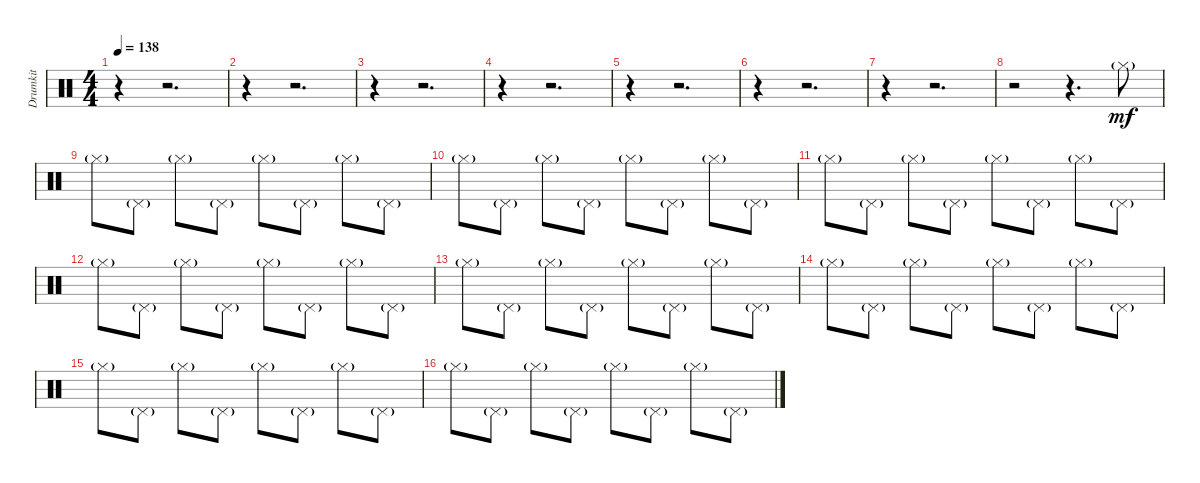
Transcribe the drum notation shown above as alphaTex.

\track ("Drumkit" "Drumkit") {instrument percussion}
\staff {score}
\articulation defaults
\ts (4 4)
\tempo 138
\clef neutral
\ks c
r.4{dy mf} r.2{d} |
r.4 r.2{d} |
r.4 r.2{d} |
r.4 r.2{d} |
r.4 r.2{d} |
r.4 r.2{d} |
r.4 r.2{d} |
r.2 r.4{d} "Hi-Hat (closed)"{g}.8 |
"Hi-Hat (closed)"{g}.8 "Pedal Hi-Hat (hit)"{g}.8 "Hi-Hat (closed)"{g}.8 "Pedal Hi-Hat (hit)"{g}.8 "Hi-Hat (closed)"{g}.8 "Pedal Hi-Hat (hit)"{g}.8 "Hi-Hat (closed)"{g}.8 "Pedal Hi-Hat (hit)"{g}.8 |
"Hi-Hat (closed)"{g}.8 "Pedal Hi-Hat (hit)"{g}.8 "Hi-Hat (closed)"{g}.8 "Pedal Hi-Hat (hit)"{g}.8 "Hi-Hat (closed)"{g}.8 "Pedal Hi-Hat (hit)"{g}.8 "Hi-Hat (closed)"{g}.8 "Pedal Hi-Hat (hit)"{g}.8 |
"Hi-Hat (closed)"{g}.8 "Pedal Hi-Hat (hit)"{g}.8 "Hi-Hat (closed)"{g}.8 "Pedal Hi-Hat (hit)"{g}.8 "Hi-Hat (closed)"{g}.8 "Pedal Hi-Hat (hit)"{g}.8 "Hi-Hat (closed)"{g}.8 "Pedal Hi-Hat (hit)"{g}.8 |
"Hi-Hat (closed)"{g}.8 "Pedal Hi-Hat (hit)"{g}.8 "Hi-Hat (closed)"{g}.8 "Pedal Hi-Hat (hit)"{g}.8 "Hi-Hat (closed)"{g}.8 "Pedal Hi-Hat (hit)"{g}.8 "Hi-Hat (closed)"{g}.8 "Pedal Hi-Hat (hit)"{g}.8 |
"Hi-Hat (closed)"{g}.8 "Pedal Hi-Hat (hit)"{g}.8 "Hi-Hat (closed)"{g}.8 "Pedal Hi-Hat (hit)"{g}.8 "Hi-Hat (closed)"{g}.8 "Pedal Hi-Hat (hit)"{g}.8 "Hi-Hat (closed)"{g}.8 "Pedal Hi-Hat (hit)"{g}.8 |
"Hi-Hat (closed)"{g}.8 "Pedal Hi-Hat (hit)"{g}.8 "Hi-Hat (closed)"{g}.8 "Pedal Hi-Hat (hit)"{g}.8 "Hi-Hat (closed)"{g}.8 "Pedal Hi-Hat (hit)"{g}.8 "Hi-Hat (closed)"{g}.8 "Pedal Hi-Hat (hit)"{g}.8 |
"Hi-Hat (closed)"{g}.8 "Pedal Hi-Hat (hit)"{g}.8 "Hi-Hat (closed)"{g}.8 "Pedal Hi-Hat (hit)"{g}.8 "Hi-Hat (closed)"{g}.8 "Pedal Hi-Hat (hit)"{g}.8 "Hi-Hat (closed)"{g}.8 "Pedal Hi-Hat (hit)"{g}.8 |
"Hi-Hat (closed)"{g}.8 "Pedal Hi-Hat (hit)"{g}.8 "Hi-Hat (closed)"{g}.8 "Pedal Hi-Hat (hit)"{g}.8 "Hi-Hat (closed)"{g}.8 "Pedal Hi-Hat (hit)"{g}.8 "Hi-Hat (closed)"{g}.8 "Pedal Hi-Hat (hit)"{g}.8
